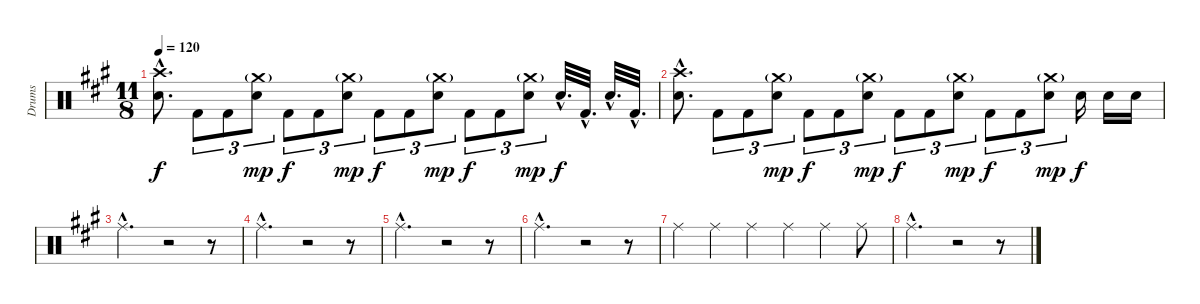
\track ("Drums" "Drums") {instrument percussion}
\staff {score}
\articulation defaults
\ts (11 8)
\tempo 120
\clef neutral
\ks a
("Crash high (hit)"{hac} "Electric Snare (hit)"{hac}).8{d dy f} "Kick (hit) 2".8{tu (3 2)} "Kick (hit) 2".8{tu (3 2)} ("Crash medium (hit)"{g} "Electric Snare (hit)").8{tu (3 2) dy mp} "Kick (hit) 2".8{tu (3 2) dy f} "Kick (hit) 2".8{tu (3 2)} ("Crash medium (hit)"{g} "Electric Snare (hit)").8{tu (3 2) dy mp} "Kick (hit) 2".8{tu (3 2) dy f} "Kick (hit) 2".8{tu (3 2)} ("Crash medium (hit)"{g} "Electric Snare (hit)").8{tu (3 2) dy mp} "Kick (hit) 2".8{tu (3 2) dy f} "Kick (hit) 2".8{tu (3 2)} ("Crash medium (hit)"{g} "Electric Snare (hit)").8{tu (3 2) dy mp} "Electric Snare (hit)"{hac}.32{d dy f} "Kick (hit) 2"{hac}.32{d} "Electric Snare (hit)"{hac}.32{d} "Kick (hit) 2"{hac}.32{d} |
("Crash high (hit)"{hac} "Electric Snare (hit)"{hac}).8{d} "Kick (hit) 2".8{tu (3 2)} "Kick (hit) 2".8{tu (3 2)} ("Crash medium (hit)"{g} "Electric Snare (hit)").8{tu (3 2) dy mp} "Kick (hit) 2".8{tu (3 2) dy f} "Kick (hit) 2".8{tu (3 2)} ("Crash medium (hit)"{g} "Electric Snare (hit)").8{tu (3 2) dy mp} "Kick (hit) 2".8{tu (3 2) dy f} "Kick (hit) 2".8{tu (3 2)} ("Crash medium (hit)"{g} "Electric Snare (hit)").8{tu (3 2) dy mp} "Kick (hit) 2".8{tu (3 2) dy f} "Kick (hit) 2".8{tu (3 2)} ("Crash medium (hit)"{g} "Electric Snare (hit)").8{tu (3 2) dy mp} "Electric Snare (hit)".16{dy f} "Electric Snare (hit)".16 "Electric Snare (hit)".16 |
"Ride (middle)"{hac}.2{d} r.2 r.8 |
"Ride (middle)"{hac}.2{d} r.2 r.8 |
"Ride (middle)"{hac}.2{d} r.2 r.8 |
"Ride (middle)"{hac}.2{d} r.2 r.8 |
"Ride (middle)".4 "Ride (middle)".4 "Ride (middle)".4 "Ride (middle)".4 "Ride (middle)".4 "Ride (middle)".8 |
"Ride (middle)"{hac}.2{d} r.2 r.8
